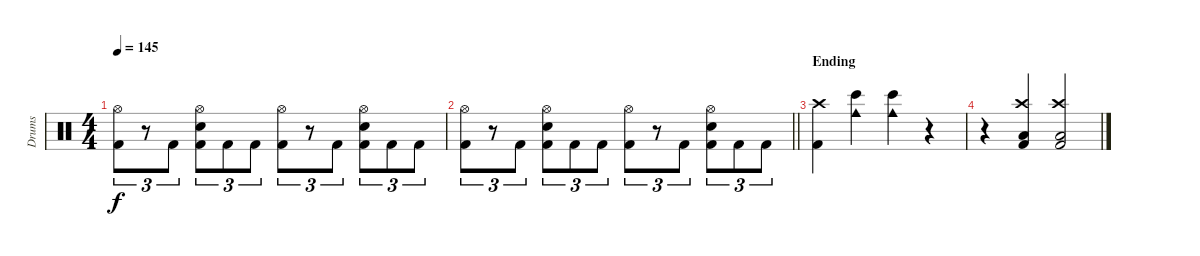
\track ("Drums" "Drums") {instrument percussion}
\staff {score}
\articulation defaults
\ts (4 4)
\tempo 145
\clef neutral
\ks c
("Hi-Hat (open)" "Kick (hit) 2").8{tu (3 2) dy f} r.8{tu (3 2)} "Kick (hit) 2".8{tu (3 2)} ("Hi-Hat (open)" "Snare (hit) 2" "Kick (hit) 2").8{tu (3 2)} "Kick (hit) 2".8{tu (3 2)} "Kick (hit) 2".8{tu (3 2)} ("Hi-Hat (open)" "Kick (hit) 2").8{tu (3 2)} r.8{tu (3 2)} "Kick (hit) 2".8{tu (3 2)} ("Hi-Hat (open)" "Snare (hit) 2" "Kick (hit) 2").8{tu (3 2)} "Kick (hit) 2".8{tu (3 2)} "Kick (hit) 2".8{tu (3 2)} |
\barLineRight lightlight
("Hi-Hat (open)" "Kick (hit) 2").8{tu (3 2)} r.8{tu (3 2)} "Kick (hit) 2".8{tu (3 2)} ("Hi-Hat (open)" "Snare (hit) 2" "Kick (hit) 2").8{tu (3 2)} "Kick (hit) 2".8{tu (3 2)} "Kick (hit) 2".8{tu (3 2)} ("Hi-Hat (open)" "Kick (hit) 2").8{tu (3 2)} r.8{tu (3 2)} "Kick (hit) 2".8{tu (3 2)} ("Hi-Hat (open)" "Snare (hit) 2" "Kick (hit) 2").8{tu (3 2)} "Kick (hit) 2".8{tu (3 2)} "Kick (hit) 2".8{tu (3 2)} |
\section ("" "Ending")
("Crash high (hit)" "Kick (hit) 2").4 ("Cowbell medium (hit)" "Bongo High (hit)").4 ("Cowbell medium (hit)" "Bongo High (hit)").4 r.4 |
r.4 ("Crash high (hit)" "Low Floor Tom (hit)" "Kick (hit) 2").4 ("Crash high (hit)" "Low Floor Tom (hit)" "Kick (hit) 2").2
